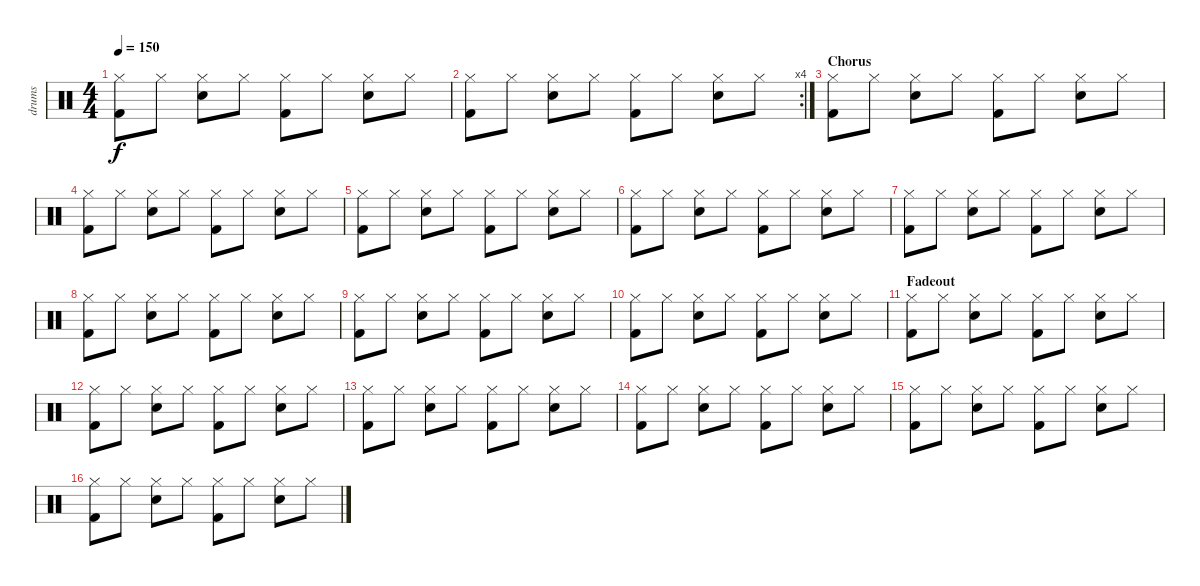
\track ("drums" "drums") {instrument percussion}
\staff {score}
\articulation defaults
\ts (4 4)
\tempo 150
\clef neutral
\ks c
("Hi-Hat (closed)" "Kick (hit) 2").8{dy f} "Hi-Hat (closed)".8 ("Hi-Hat (closed)" "Electric Snare (hit)").8 "Hi-Hat (closed)".8 ("Hi-Hat (closed)" "Kick (hit) 2").8 "Hi-Hat (closed)".8 ("Hi-Hat (closed)" "Electric Snare (hit)").8 "Hi-Hat (closed)".8 |
\rc 4
("Hi-Hat (closed)" "Kick (hit) 2").8 "Hi-Hat (closed)".8 ("Hi-Hat (closed)" "Electric Snare (hit)").8 "Hi-Hat (closed)".8 ("Hi-Hat (closed)" "Kick (hit) 2").8 "Hi-Hat (closed)".8 ("Hi-Hat (closed)" "Electric Snare (hit)").8 "Hi-Hat (closed)".8 |
\section ("" "Chorus")
("Hi-Hat (closed)" "Kick (hit) 2").8 "Hi-Hat (closed)".8 ("Hi-Hat (closed)" "Electric Snare (hit)").8 "Hi-Hat (closed)".8 ("Hi-Hat (closed)" "Kick (hit) 2").8 "Hi-Hat (closed)".8 ("Hi-Hat (closed)" "Electric Snare (hit)").8 "Hi-Hat (closed)".8 |
("Hi-Hat (closed)" "Kick (hit) 2").8 "Hi-Hat (closed)".8 ("Hi-Hat (closed)" "Electric Snare (hit)").8 "Hi-Hat (closed)".8 ("Hi-Hat (closed)" "Kick (hit) 2").8 "Hi-Hat (closed)".8 ("Hi-Hat (closed)" "Electric Snare (hit)").8 "Hi-Hat (closed)".8 |
("Hi-Hat (closed)" "Kick (hit) 2").8 "Hi-Hat (closed)".8 ("Hi-Hat (closed)" "Electric Snare (hit)").8 "Hi-Hat (closed)".8 ("Hi-Hat (closed)" "Kick (hit) 2").8 "Hi-Hat (closed)".8 ("Hi-Hat (closed)" "Electric Snare (hit)").8 "Hi-Hat (closed)".8 |
("Hi-Hat (closed)" "Kick (hit) 2").8 "Hi-Hat (closed)".8 ("Hi-Hat (closed)" "Electric Snare (hit)").8 "Hi-Hat (closed)".8 ("Hi-Hat (closed)" "Kick (hit) 2").8 "Hi-Hat (closed)".8 ("Hi-Hat (closed)" "Electric Snare (hit)").8 "Hi-Hat (closed)".8 |
("Hi-Hat (closed)" "Kick (hit) 2").8 "Hi-Hat (closed)".8 ("Hi-Hat (closed)" "Electric Snare (hit)").8 "Hi-Hat (closed)".8 ("Hi-Hat (closed)" "Kick (hit) 2").8 "Hi-Hat (closed)".8 ("Hi-Hat (closed)" "Electric Snare (hit)").8 "Hi-Hat (closed)".8 |
("Hi-Hat (closed)" "Kick (hit) 2").8 "Hi-Hat (closed)".8 ("Hi-Hat (closed)" "Electric Snare (hit)").8 "Hi-Hat (closed)".8 ("Hi-Hat (closed)" "Kick (hit) 2").8 "Hi-Hat (closed)".8 ("Hi-Hat (closed)" "Electric Snare (hit)").8 "Hi-Hat (closed)".8 |
("Hi-Hat (closed)" "Kick (hit) 2").8 "Hi-Hat (closed)".8 ("Hi-Hat (closed)" "Electric Snare (hit)").8 "Hi-Hat (closed)".8 ("Hi-Hat (closed)" "Kick (hit) 2").8 "Hi-Hat (closed)".8 ("Hi-Hat (closed)" "Electric Snare (hit)").8 "Hi-Hat (closed)".8 |
("Hi-Hat (closed)" "Kick (hit) 2").8 "Hi-Hat (closed)".8 ("Hi-Hat (closed)" "Electric Snare (hit)").8 "Hi-Hat (closed)".8 ("Hi-Hat (closed)" "Kick (hit) 2").8 "Hi-Hat (closed)".8 ("Hi-Hat (closed)" "Electric Snare (hit)").8 "Hi-Hat (closed)".8 |
\section ("" "Fadeout")
("Hi-Hat (closed)" "Kick (hit) 2").8 "Hi-Hat (closed)".8 ("Hi-Hat (closed)" "Electric Snare (hit)").8 "Hi-Hat (closed)".8 ("Hi-Hat (closed)" "Kick (hit) 2").8 "Hi-Hat (closed)".8 ("Hi-Hat (closed)" "Electric Snare (hit)").8 "Hi-Hat (closed)".8 |
("Hi-Hat (closed)" "Kick (hit) 2").8 "Hi-Hat (closed)".8 ("Hi-Hat (closed)" "Electric Snare (hit)").8 "Hi-Hat (closed)".8 ("Hi-Hat (closed)" "Kick (hit) 2").8 "Hi-Hat (closed)".8 ("Hi-Hat (closed)" "Electric Snare (hit)").8 "Hi-Hat (closed)".8 |
("Hi-Hat (closed)" "Kick (hit) 2").8 "Hi-Hat (closed)".8 ("Hi-Hat (closed)" "Electric Snare (hit)").8 "Hi-Hat (closed)".8 ("Hi-Hat (closed)" "Kick (hit) 2").8 "Hi-Hat (closed)".8 ("Hi-Hat (closed)" "Electric Snare (hit)").8 "Hi-Hat (closed)".8 |
("Hi-Hat (closed)" "Kick (hit) 2").8 "Hi-Hat (closed)".8 ("Hi-Hat (closed)" "Electric Snare (hit)").8 "Hi-Hat (closed)".8 ("Hi-Hat (closed)" "Kick (hit) 2").8 "Hi-Hat (closed)".8 ("Hi-Hat (closed)" "Electric Snare (hit)").8 "Hi-Hat (closed)".8 |
("Hi-Hat (closed)" "Kick (hit) 2").8 "Hi-Hat (closed)".8 ("Hi-Hat (closed)" "Electric Snare (hit)").8 "Hi-Hat (closed)".8 ("Hi-Hat (closed)" "Kick (hit) 2").8 "Hi-Hat (closed)".8 ("Hi-Hat (closed)" "Electric Snare (hit)").8 "Hi-Hat (closed)".8 |
("Hi-Hat (closed)" "Kick (hit) 2").8 "Hi-Hat (closed)".8 ("Hi-Hat (closed)" "Electric Snare (hit)").8 "Hi-Hat (closed)".8 ("Hi-Hat (closed)" "Kick (hit) 2").8 "Hi-Hat (closed)".8 ("Hi-Hat (closed)" "Electric Snare (hit)").8 "Hi-Hat (closed)".8
